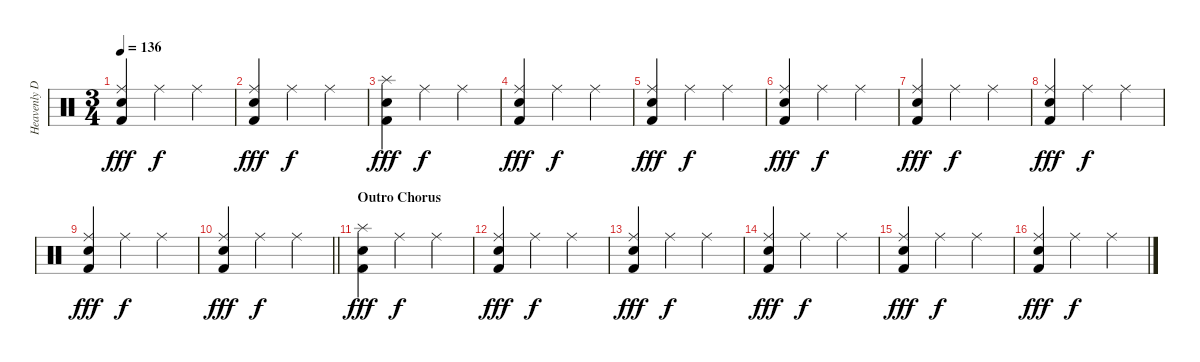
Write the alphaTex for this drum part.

\track ("Heavenly Drums" "Heavenly D") {instrument percussion}
\staff {score}
\articulation defaults
\ts (3 4)
\tempo 136
\clef neutral
\ks c
("Snare (hit) 2" "Ride (middle)" "Kick (hit) 2").4{dy fff} "Ride (middle)".4{dy f} "Ride (middle)".4 |
("Snare (hit) 2" "Ride (middle)" "Kick (hit) 2").4{dy fff} "Ride (middle)".4{dy f} "Ride (middle)".4 |
("Splash (hit)" "Snare (hit) 2" "Kick (hit) 2").4{dy fff} "Ride (middle)".4{dy f} "Ride (middle)".4 |
("Snare (hit) 2" "Ride (middle)" "Kick (hit) 2").4{dy fff} "Ride (middle)".4{dy f} "Ride (middle)".4 |
("Snare (hit) 2" "Ride (middle)" "Kick (hit) 2").4{dy fff} "Ride (middle)".4{dy f} "Ride (middle)".4 |
("Snare (hit) 2" "Ride (middle)" "Kick (hit) 2").4{dy fff} "Ride (middle)".4{dy f} "Ride (middle)".4 |
("Snare (hit) 2" "Ride (middle)" "Kick (hit) 2").4{dy fff} "Ride (middle)".4{dy f} "Ride (middle)".4 |
("Snare (hit) 2" "Ride (middle)" "Kick (hit) 2").4{dy fff} "Ride (middle)".4{dy f} "Ride (middle)".4 |
("Snare (hit) 2" "Ride (middle)" "Kick (hit) 2").4{dy fff} "Ride (middle)".4{dy f} "Ride (middle)".4 |
\barLineRight lightlight
("Snare (hit) 2" "Ride (middle)" "Kick (hit) 2").4{dy fff} "Ride (middle)".4{dy f} "Ride (middle)".4 |
\section ("" "Outro Chorus")
("Splash (hit)" "Snare (hit) 2" "Kick (hit) 2").4{dy fff} "Ride (middle)".4{dy f} "Ride (middle)".4 |
("Snare (hit) 2" "Ride (middle)" "Kick (hit) 2").4{dy fff} "Ride (middle)".4{dy f} "Ride (middle)".4 |
("Snare (hit) 2" "Ride (middle)" "Kick (hit) 2").4{dy fff} "Ride (middle)".4{dy f} "Ride (middle)".4 |
("Snare (hit) 2" "Ride (middle)" "Kick (hit) 2").4{dy fff} "Ride (middle)".4{dy f} "Ride (middle)".4 |
("Snare (hit) 2" "Ride (middle)" "Kick (hit) 2").4{dy fff} "Ride (middle)".4{dy f} "Ride (middle)".4 |
("Snare (hit) 2" "Ride (middle)" "Kick (hit) 2").4{dy fff} "Ride (middle)".4{dy f} "Ride (middle)".4
